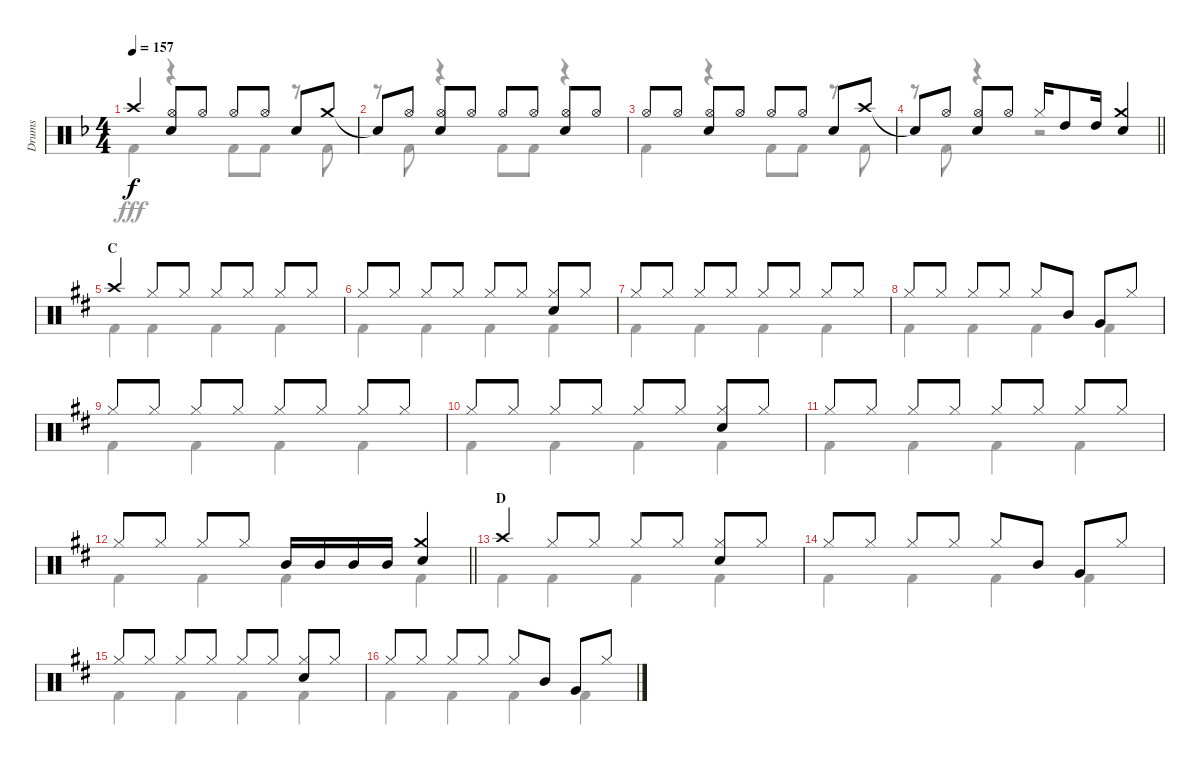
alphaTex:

\track ("Drums" "Drums") {instrument percussion}
\staff {score}
\articulation defaults
\voice
\ts (4 4)
\tempo 157
\clef neutral
\ks f "Crash high (hit)".4{dy f}
("Hi-Hat (open)" "Snare (hit) 2").8 "Hi-Hat (open)".8 "Hi-Hat (open)".8 "Hi-Hat (open)".8 "Snare (hit) 2".8 "Crash medium (hit)".8 |
"Snare (hit)"{t}.8 "Hi-Hat (open)".8 ("Hi-Hat (open)" "Snare (hit) 2").8 "Hi-Hat (open)".8 "Hi-Hat (open)".8 "Hi-Hat (open)".8 ("Hi-Hat (open)" "Snare (hit) 2").8 "Hi-Hat (open)".8 |
"Hi-Hat (open)".8 "Hi-Hat (open)".8 ("Hi-Hat (open)" "Snare (hit) 2").8 "Hi-Hat (open)".8 "Hi-Hat (open)".8 "Hi-Hat (open)".8 "Snare (hit) 2".8 "Crash high (hit)".8 |
\barLineRight lightlight "Snare (hit)"{t}.8 "Hi-Hat (open)".8
("Hi-Hat (open)" "Snare (hit) 2").8 "Hi-Hat (open)".8 "Hi-Hat (closed)".16 "High Tom (hit)".8 "High Tom (hit)".16 ("Crash medium (hit)" "Snare (hit) 2").4 |
\section ("" "C")
\ks d "Crash high (hit)".4 "Hi-Hat (closed)".8 "Hi-Hat (closed)".8 "Hi-Hat (closed)".8 "Hi-Hat (closed)".8 "Hi-Hat (closed)".8 "Hi-Hat (closed)".8
|
"Hi-Hat (closed)".8 "Hi-Hat (closed)".8 "Hi-Hat (closed)".8 "Hi-Hat (closed)".8 "Hi-Hat (closed)".8 "Hi-Hat (closed)".8 ("Hi-Hat (closed)" "Snare (hit) 2").8 "Hi-Hat (closed)".8 |
"Hi-Hat (closed)".8 "Hi-Hat (closed)".8 "Hi-Hat (closed)".8 "Hi-Hat (closed)".8 "Hi-Hat (closed)".8 "Hi-Hat (closed)".8 "Hi-Hat (closed)".8 "Hi-Hat (closed)".8 |
"Hi-Hat (closed)".8 "Hi-Hat (closed)".8 "Hi-Hat (closed)".8 "Hi-Hat (closed)".8 "Hi-Hat (closed)".8 "Mid Tom (hit)".8 "Very Low Tom (hit)".8 "Hi-Hat (closed)".8 |
"Hi-Hat (closed)".8 "Hi-Hat (closed)".8 "Hi-Hat (closed)".8 "Hi-Hat (closed)".8 "Hi-Hat (closed)".8 "Hi-Hat (closed)".8 "Hi-Hat (closed)".8 "Hi-Hat (closed)".8 |
"Hi-Hat (closed)".8 "Hi-Hat (closed)".8 "Hi-Hat (closed)".8 "Hi-Hat (closed)".8 "Hi-Hat (closed)".8 "Hi-Hat (closed)".8 ("Hi-Hat (closed)" "Snare (hit) 2").8 "Hi-Hat (closed)".8 |
"Hi-Hat (closed)".8 "Hi-Hat (closed)".8 "Hi-Hat (closed)".8 "Hi-Hat (closed)".8 "Hi-Hat (closed)".8 "Hi-Hat (closed)".8 "Hi-Hat (closed)".8 "Hi-Hat (closed)".8 |
\barLineRight lightlight "Hi-Hat (closed)".8 "Hi-Hat (closed)".8 "Hi-Hat (closed)".8 "Hi-Hat (closed)".8 "Mid Tom (hit)".16 "Mid Tom (hit)".16 "Mid Tom (hit)".16 "Mid Tom (hit)".16
("Crash medium (hit)" "Snare (hit) 2").4 |
\section ("" "D")
"Crash high (hit)".4 "Hi-Hat (closed)".8 "Hi-Hat (closed)".8 "Hi-Hat (closed)".8 "Hi-Hat (closed)".8 ("Hi-Hat (closed)" "Snare (hit) 2").8 "Hi-Hat (closed)".8 |
"Hi-Hat (closed)".8 "Hi-Hat (closed)".8 "Hi-Hat (closed)".8 "Hi-Hat (closed)".8 "Hi-Hat (closed)".8 "Mid Tom (hit)".8 "Very Low Tom (hit)".8 "Hi-Hat (closed)".8 |
"Hi-Hat (closed)".8 "Hi-Hat (closed)".8 "Hi-Hat (closed)".8 "Hi-Hat (closed)".8 "Hi-Hat (closed)".8 "Hi-Hat (closed)".8 ("Hi-Hat (closed)" "Snare (hit) 2").8 "Hi-Hat (closed)".8 |
"Hi-Hat (closed)".8 "Hi-Hat (closed)".8 "Hi-Hat (closed)".8 "Hi-Hat (closed)".8 "Hi-Hat (closed)".8 "Mid Tom (hit)".8 "Very Low Tom (hit)".8 "Hi-Hat (closed)".8
\voice
\clef neutral
\ottava regular
\simile none
\ks f "Kick (hit) 2".4{dy fff}
r.4 "Kick (hit) 2".8 "Kick (hit) 2".8 r.8 "Kick (hit) 2".8 |
r.8 "Kick (hit) 2".8 r.4 "Kick (hit) 2".8 "Kick (hit) 2".8 r.4 |
"Kick (hit) 2".4 r.4 "Kick (hit) 2".8 "Kick (hit) 2".8 r.8 "Kick (hit) 2".8 |
\barLineRight lightlight
r.8 "Kick (hit) 2".8 r.4 r.2 |
\ks d "Kick (hit) 2".4 "Kick (hit) 2".4 "Kick (hit) 2".4 "Kick (hit) 2".4
|
"Kick (hit) 2".4 "Kick (hit) 2".4 "Kick (hit) 2".4 "Kick (hit) 2".4 |
"Kick (hit) 2".4 "Kick (hit) 2".4 "Kick (hit) 2".4 "Kick (hit) 2".4 |
"Kick (hit) 2".4 "Kick (hit) 2".4 "Kick (hit) 2".4 "Kick (hit) 2".4 |
"Kick (hit) 2".4 "Kick (hit) 2".4 "Kick (hit) 2".4 "Kick (hit) 2".4 |
"Kick (hit) 2".4 "Kick (hit) 2".4 "Kick (hit) 2".4 "Kick (hit) 2".4 |
"Kick (hit) 2".4 "Kick (hit) 2".4 "Kick (hit) 2".4 "Kick (hit) 2".4 |
\barLineRight lightlight "Kick (hit) 2".4 "Kick (hit) 2".4 "Kick (hit) 2".4 "Kick (hit) 2".4
|
"Kick (hit) 2".4 "Kick (hit) 2".4 "Kick (hit) 2".4 "Kick (hit) 2".4 |
"Kick (hit) 2".4 "Kick (hit) 2".4 "Kick (hit) 2".4 "Kick (hit) 2".4 |
"Kick (hit) 2".4 "Kick (hit) 2".4 "Kick (hit) 2".4 "Kick (hit) 2".4 |
"Kick (hit) 2".4 "Kick (hit) 2".4 "Kick (hit) 2".4 "Kick (hit) 2".4
